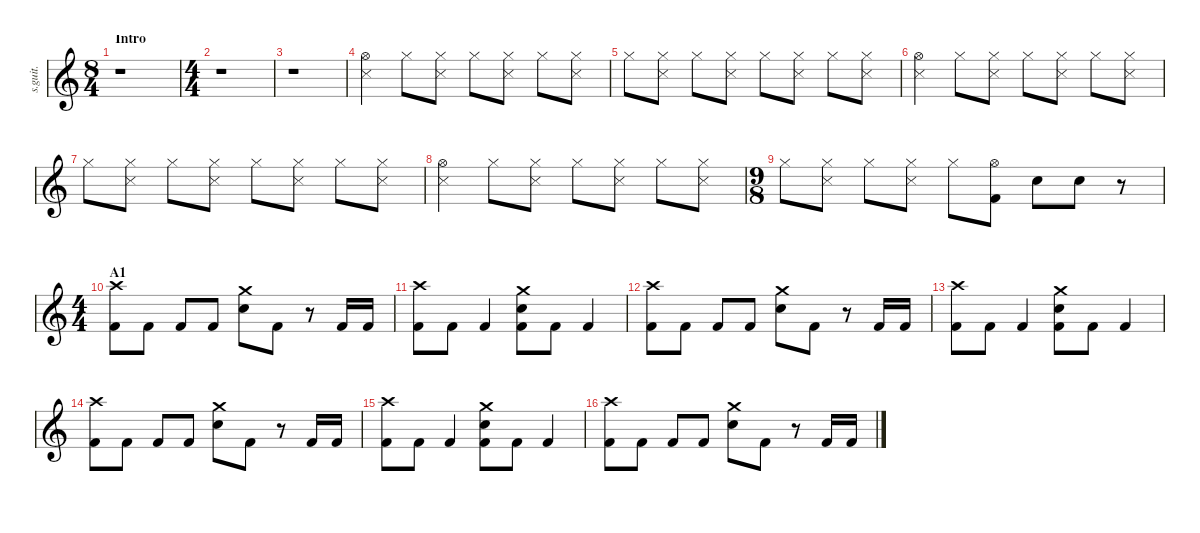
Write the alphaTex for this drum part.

\defaultSystemsLayout 4
\hideDynamics
\bracketExtendMode nobrackets
\track ("Batterie" "s.guit.") {instrument percussion}
\staff {score}
\articulation defaults
\ts (8 4)
\beaming (8 2 2 2 2)
\section ("" "Intro")
\tempo (170 hide)
\clef g2
\ks c
r.1{dy f} |
\ts (4 4)
\beaming (8 2 2 2 2)
r.1 |
r.1 |
("Hi-Hat (open)" "Snare (side stick) 3").4{lyrics (0 "") lyrics (1 "") lyrics (2 "") lyrics (3 "") lyrics (4 "")} "Hi-Hat (closed)".8{lyrics (0 "") lyrics (1 "") lyrics (2 "") lyrics (3 "") lyrics (4 "") dy mp} ("Hi-Hat (closed)" "Snare (side stick) 3").8{lyrics (0 "") lyrics (1 "") lyrics (2 "") lyrics (3 "") lyrics (4 "") dy mf} "Hi-Hat (closed)".8{lyrics (0 "") lyrics (1 "") lyrics (2 "") lyrics (3 "") lyrics (4 "") dy mp} ("Hi-Hat (closed)" "Snare (side stick) 3").8{lyrics (0 "") lyrics (1 "") lyrics (2 "") lyrics (3 "") lyrics (4 "") dy mf} "Hi-Hat (closed)".8{lyrics (0 "") lyrics (1 "") lyrics (2 "") lyrics (3 "") lyrics (4 "") dy mp} ("Hi-Hat (closed)" "Snare (side stick) 3").8{lyrics (0 "") lyrics (1 "") lyrics (2 "") lyrics (3 "") lyrics (4 "") dy mf} |
"Hi-Hat (closed)".8{lyrics (0 "") lyrics (1 "") lyrics (2 "") lyrics (3 "") lyrics (4 "") dy mp} ("Hi-Hat (closed)" "Snare (side stick) 3").8{lyrics (0 "") lyrics (1 "") lyrics (2 "") lyrics (3 "") lyrics (4 "") dy mf} "Hi-Hat (closed)".8{lyrics (0 "") lyrics (1 "") lyrics (2 "") lyrics (3 "") lyrics (4 "") dy mp} ("Hi-Hat (closed)" "Snare (side stick) 3").8{lyrics (0 "") lyrics (1 "") lyrics (2 "") lyrics (3 "") lyrics (4 "") dy mf} "Hi-Hat (closed)".8{lyrics (0 "") lyrics (1 "") lyrics (2 "") lyrics (3 "") lyrics (4 "") dy mp} ("Hi-Hat (closed)" "Snare (side stick) 3").8{lyrics (0 "") lyrics (1 "") lyrics (2 "") lyrics (3 "") lyrics (4 "") dy mf} "Hi-Hat (closed)".8{lyrics (0 "") lyrics (1 "") lyrics (2 "") lyrics (3 "") lyrics (4 "") dy mp} ("Hi-Hat (closed)" "Snare (side stick) 3").8{lyrics (0 "") lyrics (1 "") lyrics (2 "") lyrics (3 "") lyrics (4 "") dy mf} |
("Hi-Hat (open)" "Snare (side stick) 3").4{lyrics (0 "") lyrics (1 "") lyrics (2 "") lyrics (3 "") lyrics (4 "") dy f} "Hi-Hat (closed)".8{lyrics (0 "") lyrics (1 "") lyrics (2 "") lyrics (3 "") lyrics (4 "") dy mp} ("Hi-Hat (closed)" "Snare (side stick) 3").8{lyrics (0 "") lyrics (1 "") lyrics (2 "") lyrics (3 "") lyrics (4 "") dy mf} "Hi-Hat (closed)".8{lyrics (0 "") lyrics (1 "") lyrics (2 "") lyrics (3 "") lyrics (4 "") dy mp} ("Hi-Hat (closed)" "Snare (side stick) 3").8{lyrics (0 "") lyrics (1 "") lyrics (2 "") lyrics (3 "") lyrics (4 "") dy mf} "Hi-Hat (closed)".8{lyrics (0 "") lyrics (1 "") lyrics (2 "") lyrics (3 "") lyrics (4 "") dy mp} ("Hi-Hat (closed)" "Snare (side stick) 3").8{lyrics (0 "") lyrics (1 "") lyrics (2 "") lyrics (3 "") lyrics (4 "") dy mf} |
"Hi-Hat (closed)".8{lyrics (0 "") lyrics (1 "") lyrics (2 "") lyrics (3 "") lyrics (4 "") dy mp} ("Hi-Hat (closed)" "Snare (side stick) 3").8{lyrics (0 "") lyrics (1 "") lyrics (2 "") lyrics (3 "") lyrics (4 "") dy mf} "Hi-Hat (closed)".8{lyrics (0 "") lyrics (1 "") lyrics (2 "") lyrics (3 "") lyrics (4 "") dy mp} ("Hi-Hat (closed)" "Snare (side stick) 3").8{lyrics (0 "") lyrics (1 "") lyrics (2 "") lyrics (3 "") lyrics (4 "") dy mf} "Hi-Hat (closed)".8{lyrics (0 "") lyrics (1 "") lyrics (2 "") lyrics (3 "") lyrics (4 "") dy mp} ("Hi-Hat (closed)" "Snare (side stick) 3").8{lyrics (0 "") lyrics (1 "") lyrics (2 "") lyrics (3 "") lyrics (4 "") dy mf} "Hi-Hat (closed)".8{lyrics (0 "") lyrics (1 "") lyrics (2 "") lyrics (3 "") lyrics (4 "") dy mp} ("Hi-Hat (closed)" "Snare (side stick) 3").8{lyrics (0 "") lyrics (1 "") lyrics (2 "") lyrics (3 "") lyrics (4 "") dy mf} |
("Hi-Hat (open)" "Snare (side stick) 3").4{lyrics (0 "") lyrics (1 "") lyrics (2 "") lyrics (3 "") lyrics (4 "")} "Hi-Hat (closed)".8{lyrics (0 "") lyrics (1 "") lyrics (2 "") lyrics (3 "") lyrics (4 "") dy mp} ("Hi-Hat (closed)" "Snare (side stick) 3").8{lyrics (0 "") lyrics (1 "") lyrics (2 "") lyrics (3 "") lyrics (4 "") dy mf} "Hi-Hat (closed)".8{lyrics (0 "") lyrics (1 "") lyrics (2 "") lyrics (3 "") lyrics (4 "") dy mp} ("Hi-Hat (closed)" "Snare (side stick) 3").8{lyrics (0 "") lyrics (1 "") lyrics (2 "") lyrics (3 "") lyrics (4 "") dy mf} "Hi-Hat (closed)".8{lyrics (0 "") lyrics (1 "") lyrics (2 "") lyrics (3 "") lyrics (4 "") dy mp} ("Hi-Hat (closed)" "Snare (side stick) 3").8{lyrics (0 "") lyrics (1 "") lyrics (2 "") lyrics (3 "") lyrics (4 "") dy mf} |
\ts (9 8)
\beaming (8 2 2 2 2)
"Hi-Hat (closed)".8{lyrics (0 "") lyrics (1 "") lyrics (2 "") lyrics (3 "") lyrics (4 "") dy mp} ("Hi-Hat (closed)" "Snare (side stick) 3").8{lyrics (0 "") lyrics (1 "") lyrics (2 "") lyrics (3 "") lyrics (4 "") dy mf} "Hi-Hat (closed)".8{lyrics (0 "") lyrics (1 "") lyrics (2 "") lyrics (3 "") lyrics (4 "") dy mp} ("Hi-Hat (closed)" "Snare (side stick) 3").8{lyrics (0 "") lyrics (1 "") lyrics (2 "") lyrics (3 "") lyrics (4 "") dy mf} "Hi-Hat (closed)".8{lyrics (0 "") lyrics (1 "") lyrics (2 "") lyrics (3 "") lyrics (4 "") dy mp} ("Hi-Hat (open)" "Kick (hit) 2").8{lyrics (0 "") lyrics (1 "") lyrics (2 "") lyrics (3 "") lyrics (4 "") dy f} "Electric Snare (hit)".8{lyrics (0 "") lyrics (1 "") lyrics (2 "") lyrics (3 "") lyrics (4 "") dy fff} "Electric Snare (hit)".8{lyrics (0 "") lyrics (1 "") lyrics (2 "") lyrics (3 "") lyrics (4 "")} r.8 |
\ts (4 4)
\beaming (8 2 2 2 2)
\section ("" "A1")
("Crash high (hit)" "Kick (hit) 2").8{lyrics (0 "") lyrics (1 "") lyrics (2 "") lyrics (3 "") lyrics (4 "") dy f} "Kick (hit) 2".8{lyrics (0 "") lyrics (1 "") lyrics (2 "") lyrics (3 "") lyrics (4 "") dy fff} "Kick (hit) 2".8{lyrics (0 "") lyrics (1 "") lyrics (2 "") lyrics (3 "") lyrics (4 "")} "Kick (hit) 2".8{lyrics (0 "") lyrics (1 "") lyrics (2 "") lyrics (3 "") lyrics (4 "")} ("Crash medium (hit)" "Electric Snare (hit)").8{lyrics (0 "") lyrics (1 "") lyrics (2 "") lyrics (3 "") lyrics (4 "") dy f} "Kick (hit) 2".8{lyrics (0 "") lyrics (1 "") lyrics (2 "") lyrics (3 "") lyrics (4 "") dy fff} r.8 "Kick (hit) 2".16{lyrics (0 "") lyrics (1 "") lyrics (2 "") lyrics (3 "") lyrics (4 "")} "Kick (hit) 2".16{lyrics (0 "") lyrics (1 "") lyrics (2 "") lyrics (3 "") lyrics (4 "")} |
("Crash high (hit)" "Kick (hit) 2").8{lyrics (0 "") lyrics (1 "") lyrics (2 "") lyrics (3 "") lyrics (4 "") dy f} "Kick (hit) 2".8{lyrics (0 "") lyrics (1 "") lyrics (2 "") lyrics (3 "") lyrics (4 "") dy fff} "Kick (hit) 2".4{lyrics (0 "") lyrics (1 "") lyrics (2 "") lyrics (3 "") lyrics (4 "")} ("Crash medium (hit)" "Electric Snare (hit)" "Kick (hit) 2").8{lyrics (0 "") lyrics (1 "") lyrics (2 "") lyrics (3 "") lyrics (4 "") dy f} "Kick (hit) 2".8{lyrics (0 "") lyrics (1 "") lyrics (2 "") lyrics (3 "") lyrics (4 "") dy fff} "Kick (hit) 2".4{lyrics (0 "") lyrics (1 "") lyrics (2 "") lyrics (3 "") lyrics (4 "")} |
("Crash high (hit)" "Kick (hit) 2").8{lyrics (0 "") lyrics (1 "") lyrics (2 "") lyrics (3 "") lyrics (4 "") dy f} "Kick (hit) 2".8{lyrics (0 "") lyrics (1 "") lyrics (2 "") lyrics (3 "") lyrics (4 "") dy fff} "Kick (hit) 2".8{lyrics (0 "") lyrics (1 "") lyrics (2 "") lyrics (3 "") lyrics (4 "")} "Kick (hit) 2".8{lyrics (0 "") lyrics (1 "") lyrics (2 "") lyrics (3 "") lyrics (4 "")} ("Crash medium (hit)" "Electric Snare (hit)").8{lyrics (0 "") lyrics (1 "") lyrics (2 "") lyrics (3 "") lyrics (4 "") dy f} "Kick (hit) 2".8{lyrics (0 "") lyrics (1 "") lyrics (2 "") lyrics (3 "") lyrics (4 "") dy fff} r.8 "Kick (hit) 2".16{lyrics (0 "") lyrics (1 "") lyrics (2 "") lyrics (3 "") lyrics (4 "")} "Kick (hit) 2".16{lyrics (0 "") lyrics (1 "") lyrics (2 "") lyrics (3 "") lyrics (4 "")} |
("Crash high (hit)" "Kick (hit) 2").8{lyrics (0 "") lyrics (1 "") lyrics (2 "") lyrics (3 "") lyrics (4 "") dy f} "Kick (hit) 2".8{lyrics (0 "") lyrics (1 "") lyrics (2 "") lyrics (3 "") lyrics (4 "") dy fff} "Kick (hit) 2".4{lyrics (0 "") lyrics (1 "") lyrics (2 "") lyrics (3 "") lyrics (4 "")} ("Crash medium (hit)" "Electric Snare (hit)" "Kick (hit) 2").8{lyrics (0 "") lyrics (1 "") lyrics (2 "") lyrics (3 "") lyrics (4 "") dy f} "Kick (hit) 2".8{lyrics (0 "") lyrics (1 "") lyrics (2 "") lyrics (3 "") lyrics (4 "") dy fff} "Kick (hit) 2".4{lyrics (0 "") lyrics (1 "") lyrics (2 "") lyrics (3 "") lyrics (4 "")} |
("Crash high (hit)" "Kick (hit) 2").8{lyrics (0 "") lyrics (1 "") lyrics (2 "") lyrics (3 "") lyrics (4 "") dy f} "Kick (hit) 2".8{lyrics (0 "") lyrics (1 "") lyrics (2 "") lyrics (3 "") lyrics (4 "") dy fff} "Kick (hit) 2".8{lyrics (0 "") lyrics (1 "") lyrics (2 "") lyrics (3 "") lyrics (4 "")} "Kick (hit) 2".8{lyrics (0 "") lyrics (1 "") lyrics (2 "") lyrics (3 "") lyrics (4 "")} ("Crash medium (hit)" "Electric Snare (hit)").8{lyrics (0 "") lyrics (1 "") lyrics (2 "") lyrics (3 "") lyrics (4 "") dy f} "Kick (hit) 2".8{lyrics (0 "") lyrics (1 "") lyrics (2 "") lyrics (3 "") lyrics (4 "") dy fff} r.8 "Kick (hit) 2".16{lyrics (0 "") lyrics (1 "") lyrics (2 "") lyrics (3 "") lyrics (4 "")} "Kick (hit) 2".16{lyrics (0 "") lyrics (1 "") lyrics (2 "") lyrics (3 "") lyrics (4 "")} |
("Crash high (hit)" "Kick (hit) 2").8{lyrics (0 "") lyrics (1 "") lyrics (2 "") lyrics (3 "") lyrics (4 "") dy f} "Kick (hit) 2".8{lyrics (0 "") lyrics (1 "") lyrics (2 "") lyrics (3 "") lyrics (4 "") dy fff} "Kick (hit) 2".4{lyrics (0 "") lyrics (1 "") lyrics (2 "") lyrics (3 "") lyrics (4 "")} ("Crash medium (hit)" "Electric Snare (hit)" "Kick (hit) 2").8{lyrics (0 "") lyrics (1 "") lyrics (2 "") lyrics (3 "") lyrics (4 "") dy f} "Kick (hit) 2".8{lyrics (0 "") lyrics (1 "") lyrics (2 "") lyrics (3 "") lyrics (4 "") dy fff} "Kick (hit) 2".4{lyrics (0 "") lyrics (1 "") lyrics (2 "") lyrics (3 "") lyrics (4 "")} |
("Crash high (hit)" "Kick (hit) 2").8{lyrics (0 "") lyrics (1 "") lyrics (2 "") lyrics (3 "") lyrics (4 "") dy f} "Kick (hit) 2".8{lyrics (0 "") lyrics (1 "") lyrics (2 "") lyrics (3 "") lyrics (4 "") dy fff} "Kick (hit) 2".8{lyrics (0 "") lyrics (1 "") lyrics (2 "") lyrics (3 "") lyrics (4 "")} "Kick (hit) 2".8{lyrics (0 "") lyrics (1 "") lyrics (2 "") lyrics (3 "") lyrics (4 "")} ("Crash medium (hit)" "Electric Snare (hit)").8{lyrics (0 "") lyrics (1 "") lyrics (2 "") lyrics (3 "") lyrics (4 "") dy f} "Kick (hit) 2".8{lyrics (0 "") lyrics (1 "") lyrics (2 "") lyrics (3 "") lyrics (4 "") dy fff} r.8 "Kick (hit) 2".16{lyrics (0 "") lyrics (1 "") lyrics (2 "") lyrics (3 "") lyrics (4 "")} "Kick (hit) 2".16{lyrics (0 "") lyrics (1 "") lyrics (2 "") lyrics (3 "") lyrics (4 "")}
